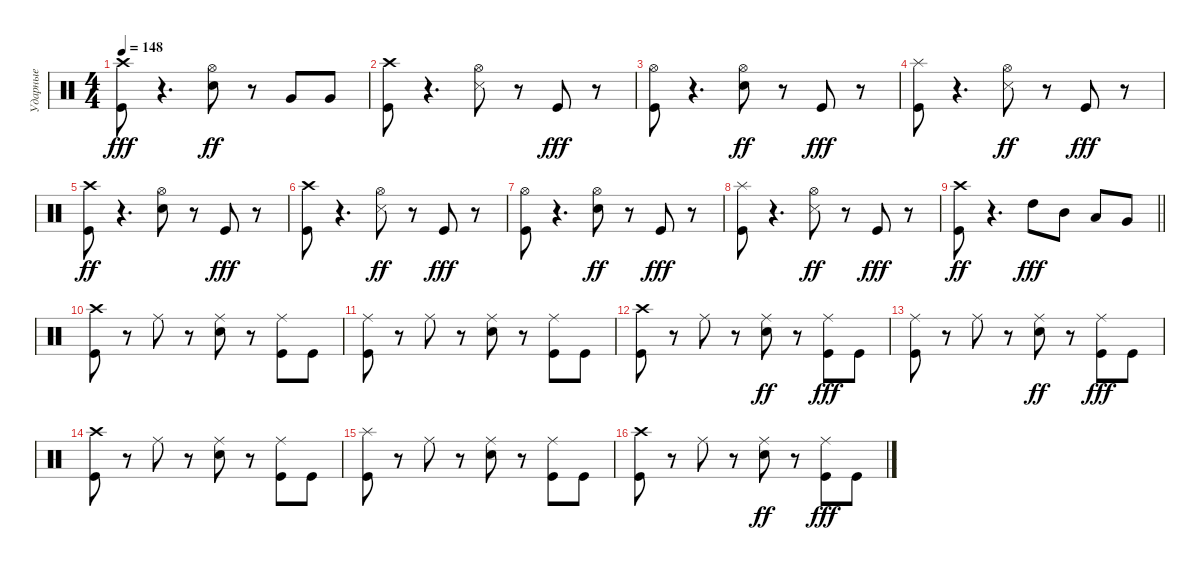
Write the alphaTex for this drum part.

\track ("Ударные" "Ударные") {instrument percussion}
\staff {score}
\articulation defaults
\ts (4 4)
\tempo 148
\clef neutral
\ks c
("Crash high (hit)" "Kick (hit)").8{dy fff} r.4{d} ("Snare (hit) 2" "Hi-Hat (open)").8{dy ff} r.8 "Very Low Tom (hit)".8 "Very Low Tom (hit)".8 |
("Kick (hit)" "Crash high (hit)").8 r.4{d} ("Snare (side stick) 3" "Hi-Hat (open)").8 r.8 "Kick (hit)".8{dy fff} r.8 |
("Hi-Hat (open)" "Kick (hit)").8 r.4{d} ("Hi-Hat (open)" "Snare (hit) 2").8{dy ff} r.8 "Kick (hit)".8{dy fff} r.8 |
("Splash (hit)" "Kick (hit)").8 r.4{d} ("Hi-Hat (open)" "Snare (side stick) 3").8{dy ff} r.8 "Kick (hit)".8{dy fff} r.8 |
("Kick (hit)" "Crash high (hit)").8{dy ff} r.4{d} ("Hi-Hat (open)" "Snare (hit) 2").8 r.8 "Kick (hit)".8{dy fff} r.8 |
("Crash high (hit)" "Kick (hit)").8 r.4{d} ("Snare (side stick) 3" "Hi-Hat (open)").8{dy ff} r.8 "Kick (hit)".8{dy fff} r.8 |
("Hi-Hat (open)" "Kick (hit)").8 r.4{d} ("Hi-Hat (open)" "Snare (hit) 2").8{dy ff} r.8 "Kick (hit)".8{dy fff} r.8 |
("Splash (hit)" "Kick (hit)").8 r.4{d} ("Snare (side stick) 3" "Hi-Hat (open)").8{dy ff} r.8 "Kick (hit)".8{dy fff} r.8 |
\barLineRight lightlight
("Kick (hit)" "Crash high (hit)").8{dy ff} r.4{d} "High Tom (hit)".8{dy fff} "Mid Tom (hit)".8 "Low Tom (hit)".8 "Very Low Tom (hit)".8 |
("Crash high (hit)" "Kick (hit)").8 r.8 "Ride (middle)".8 r.8 ("Snare (hit) 2" "Ride (middle)").8 r.8 ("Kick (hit)" "Ride (middle)").8 "Kick (hit)".8 |
("Ride (middle)" "Kick (hit)").8 r.8 "Ride (middle)".8 r.8 ("Snare (hit) 2" "Ride (middle)").8 r.8 ("Kick (hit)" "Ride (middle)").8 "Kick (hit)".8 |
("Crash high (hit)" "Kick (hit)").8 r.8 "Ride (middle)".8 r.8 ("Ride (middle)" "Snare (hit) 2").8{dy ff} r.8 ("Kick (hit)" "Ride (middle)").8{dy fff} "Kick (hit)".8 |
("Ride (middle)" "Kick (hit)").8 r.8 "Ride (middle)".8 r.8 ("Ride (middle)" "Snare (hit) 2").8{dy ff} r.8 ("Kick (hit)" "Ride (middle)").8{dy fff} "Kick (hit)".8 |
("Crash high (hit)" "Kick (hit)").8 r.8 "Ride (middle)".8 r.8 ("Snare (hit) 2" "Ride (middle)").8 r.8 ("Kick (hit)" "Ride (middle)").8 "Kick (hit)".8 |
("Splash (hit)" "Kick (hit)").8 r.8 "Ride (middle)".8 r.8 ("Snare (hit) 2" "Ride (middle)").8 r.8 ("Kick (hit)" "Ride (middle)").8 "Kick (hit)".8 |
("Crash high (hit)" "Kick (hit)").8 r.8 "Ride (middle)".8 r.8 ("Ride (middle)" "Snare (hit) 2").8{dy ff} r.8 ("Kick (hit)" "Ride (middle)").8{dy fff} "Kick (hit)".8
